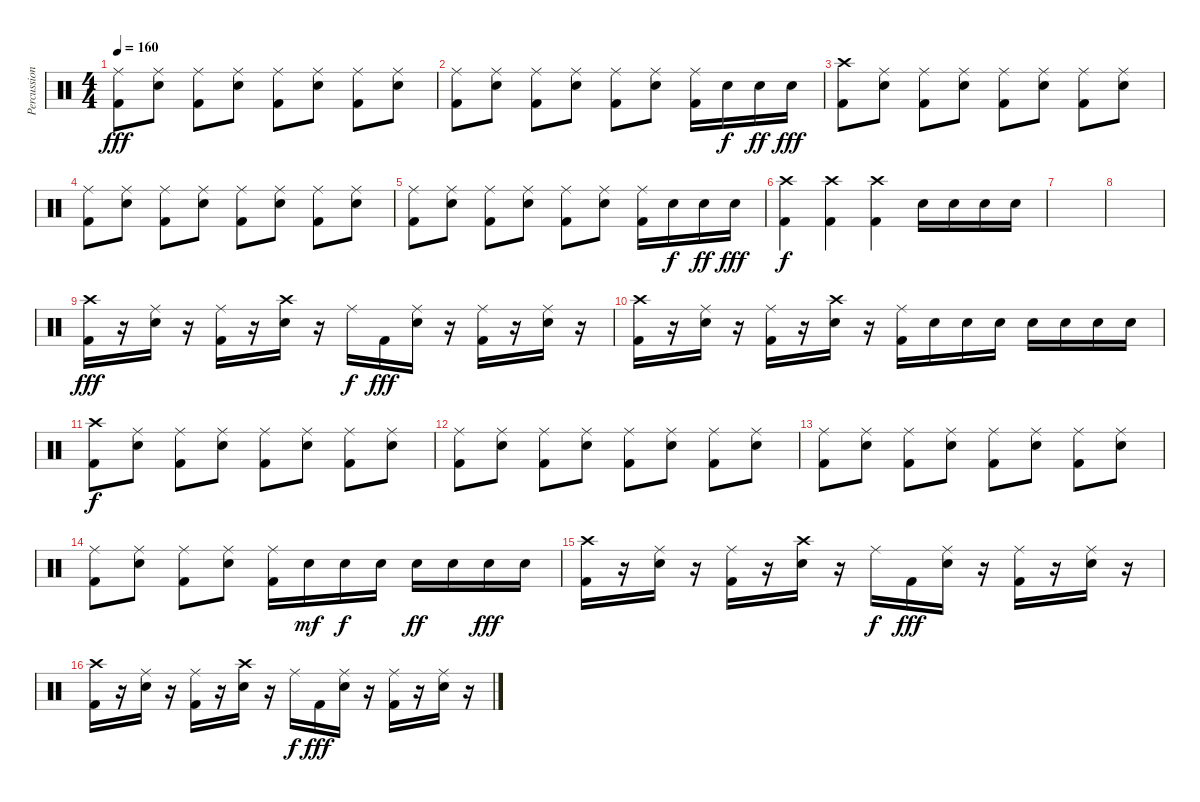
\track ("Percussion" "Percussion") {instrument percussion}
\staff {score}
\articulation defaults
\ts (4 4)
\tempo 160
\clef neutral
\ks c
("Ride (middle)" "Kick (hit) 2").8{dy fff} ("Ride (middle)" "Electric Snare (hit)").8 ("Ride (middle)" "Kick (hit) 2").8 ("Ride (middle)" "Electric Snare (hit)").8 ("Ride (middle)" "Kick (hit) 2").8 ("Ride (middle)" "Electric Snare (hit)").8 ("Ride (middle)" "Kick (hit) 2").8 ("Ride (middle)" "Electric Snare (hit)").8 |
("Ride (middle)" "Kick (hit) 2").8 ("Ride (middle)" "Electric Snare (hit)").8 ("Ride (middle)" "Kick (hit) 2").8 ("Ride (middle)" "Electric Snare (hit)").8 ("Ride (middle)" "Kick (hit) 2").8 ("Ride (middle)" "Electric Snare (hit)").8 ("Ride (middle)" "Kick (hit) 2").16 "Electric Snare (hit)".16{dy f} "Electric Snare (hit)".16{dy ff} "Electric Snare (hit)".16{dy fff} |
("Crash high (hit)" "Kick (hit) 2").8 ("Ride (middle)" "Electric Snare (hit)").8 ("Ride (middle)" "Kick (hit) 2").8 ("Ride (middle)" "Electric Snare (hit)").8 ("Ride (middle)" "Kick (hit) 2").8 ("Ride (middle)" "Electric Snare (hit)").8 ("Ride (middle)" "Kick (hit) 2").8 ("Ride (middle)" "Electric Snare (hit)").8 |
("Ride (middle)" "Kick (hit) 2").8 ("Ride (middle)" "Electric Snare (hit)").8 ("Ride (middle)" "Kick (hit) 2").8 ("Ride (middle)" "Electric Snare (hit)").8 ("Ride (middle)" "Kick (hit) 2").8 ("Ride (middle)" "Electric Snare (hit)").8 ("Ride (middle)" "Kick (hit) 2").8 ("Ride (middle)" "Electric Snare (hit)").8 |
("Ride (middle)" "Kick (hit) 2").8 ("Ride (middle)" "Electric Snare (hit)").8 ("Ride (middle)" "Kick (hit) 2").8 ("Ride (middle)" "Electric Snare (hit)").8 ("Ride (middle)" "Kick (hit) 2").8 ("Ride (middle)" "Electric Snare (hit)").8 ("Ride (middle)" "Kick (hit) 2").16 "Electric Snare (hit)".16{dy f} "Electric Snare (hit)".16{dy ff} "Electric Snare (hit)".16{dy fff} |
("Crash high (hit)" "Kick (hit) 2").4{dy f} ("Crash high (hit)" "Kick (hit) 2").4 ("Crash high (hit)" "Kick (hit) 2").4 "Electric Snare (hit)".16 "Electric Snare (hit)".16 "Electric Snare (hit)".16 "Electric Snare (hit)".16 |
|
|
("Crash high (hit)" "Kick (hit) 2").16{dy fff} r.16 ("Ride (middle)" "Electric Snare (hit)").16 r.16 ("Ride (middle)" "Kick (hit) 2").16 r.16 ("Crash high (hit)" "Electric Snare (hit)").16 r.16 "Ride (middle)".16{dy f} "Kick (hit) 2".16{dy fff} ("Ride (middle)" "Electric Snare (hit)").16 r.16 ("Ride (middle)" "Kick (hit) 2").16 r.16 ("Ride (middle)" "Electric Snare (hit)").16 r.16 |
("Crash high (hit)" "Kick (hit) 2").16 r.16 ("Ride (middle)" "Electric Snare (hit)").16 r.16 ("Ride (middle)" "Kick (hit) 2").16 r.16 ("Crash high (hit)" "Electric Snare (hit)").16 r.16 ("Ride (middle)" "Kick (hit) 2").16 "Electric Snare (hit)".16 "Electric Snare (hit)".16 "Electric Snare (hit)".16 "Electric Snare (hit)".16 "Electric Snare (hit)".16 "Electric Snare (hit)".16 "Electric Snare (hit)".16 |
("Crash high (hit)" "Kick (hit) 2").8{dy f} ("Ride (middle)" "Electric Snare (hit)").8 ("Ride (middle)" "Kick (hit) 2").8 ("Ride (middle)" "Electric Snare (hit)").8 ("Ride (middle)" "Kick (hit) 2").8 ("Ride (middle)" "Electric Snare (hit)").8 ("Ride (middle)" "Kick (hit) 2").8 ("Ride (middle)" "Electric Snare (hit)").8 |
("Ride (middle)" "Kick (hit) 2").8 ("Ride (middle)" "Electric Snare (hit)").8 ("Ride (middle)" "Kick (hit) 2").8 ("Ride (middle)" "Electric Snare (hit)").8 ("Ride (middle)" "Kick (hit) 2").8 ("Ride (middle)" "Electric Snare (hit)").8 ("Ride (middle)" "Kick (hit) 2").8 ("Ride (middle)" "Electric Snare (hit)").8 |
("Ride (middle)" "Kick (hit) 2").8 ("Ride (middle)" "Electric Snare (hit)").8 ("Ride (middle)" "Kick (hit) 2").8 ("Ride (middle)" "Electric Snare (hit)").8 ("Ride (middle)" "Kick (hit) 2").8 ("Ride (middle)" "Electric Snare (hit)").8 ("Ride (middle)" "Kick (hit) 2").8 ("Ride (middle)" "Electric Snare (hit)").8 |
("Ride (middle)" "Kick (hit) 2").8 ("Ride (middle)" "Electric Snare (hit)").8 ("Ride (middle)" "Kick (hit) 2").8 ("Ride (middle)" "Electric Snare (hit)").8 ("Ride (middle)" "Kick (hit) 2").16 "Electric Snare (hit)".16{dy mf} "Electric Snare (hit)".16{dy f} "Electric Snare (hit)".16 "Electric Snare (hit)".16{dy ff} "Electric Snare (hit)".16 "Electric Snare (hit)".16{dy fff} "Electric Snare (hit)".16 |
("Crash high (hit)" "Kick (hit) 2").16 r.16 ("Ride (middle)" "Electric Snare (hit)").16 r.16 ("Ride (middle)" "Kick (hit) 2").16 r.16 ("Crash high (hit)" "Electric Snare (hit)").16 r.16 "Ride (middle)".16{dy f} "Kick (hit) 2".16{dy fff} ("Ride (middle)" "Electric Snare (hit)").16 r.16 ("Ride (middle)" "Kick (hit) 2").16 r.16 ("Ride (middle)" "Electric Snare (hit)").16 r.16 |
("Crash high (hit)" "Kick (hit) 2").16 r.16 ("Ride (middle)" "Electric Snare (hit)").16 r.16 ("Ride (middle)" "Kick (hit) 2").16 r.16 ("Crash high (hit)" "Electric Snare (hit)").16 r.16 "Ride (middle)".16{dy f} "Kick (hit) 2".16{dy fff} ("Ride (middle)" "Electric Snare (hit)").16 r.16 ("Ride (middle)" "Kick (hit) 2").16 r.16 ("Ride (middle)" "Electric Snare (hit)").16 r.16
